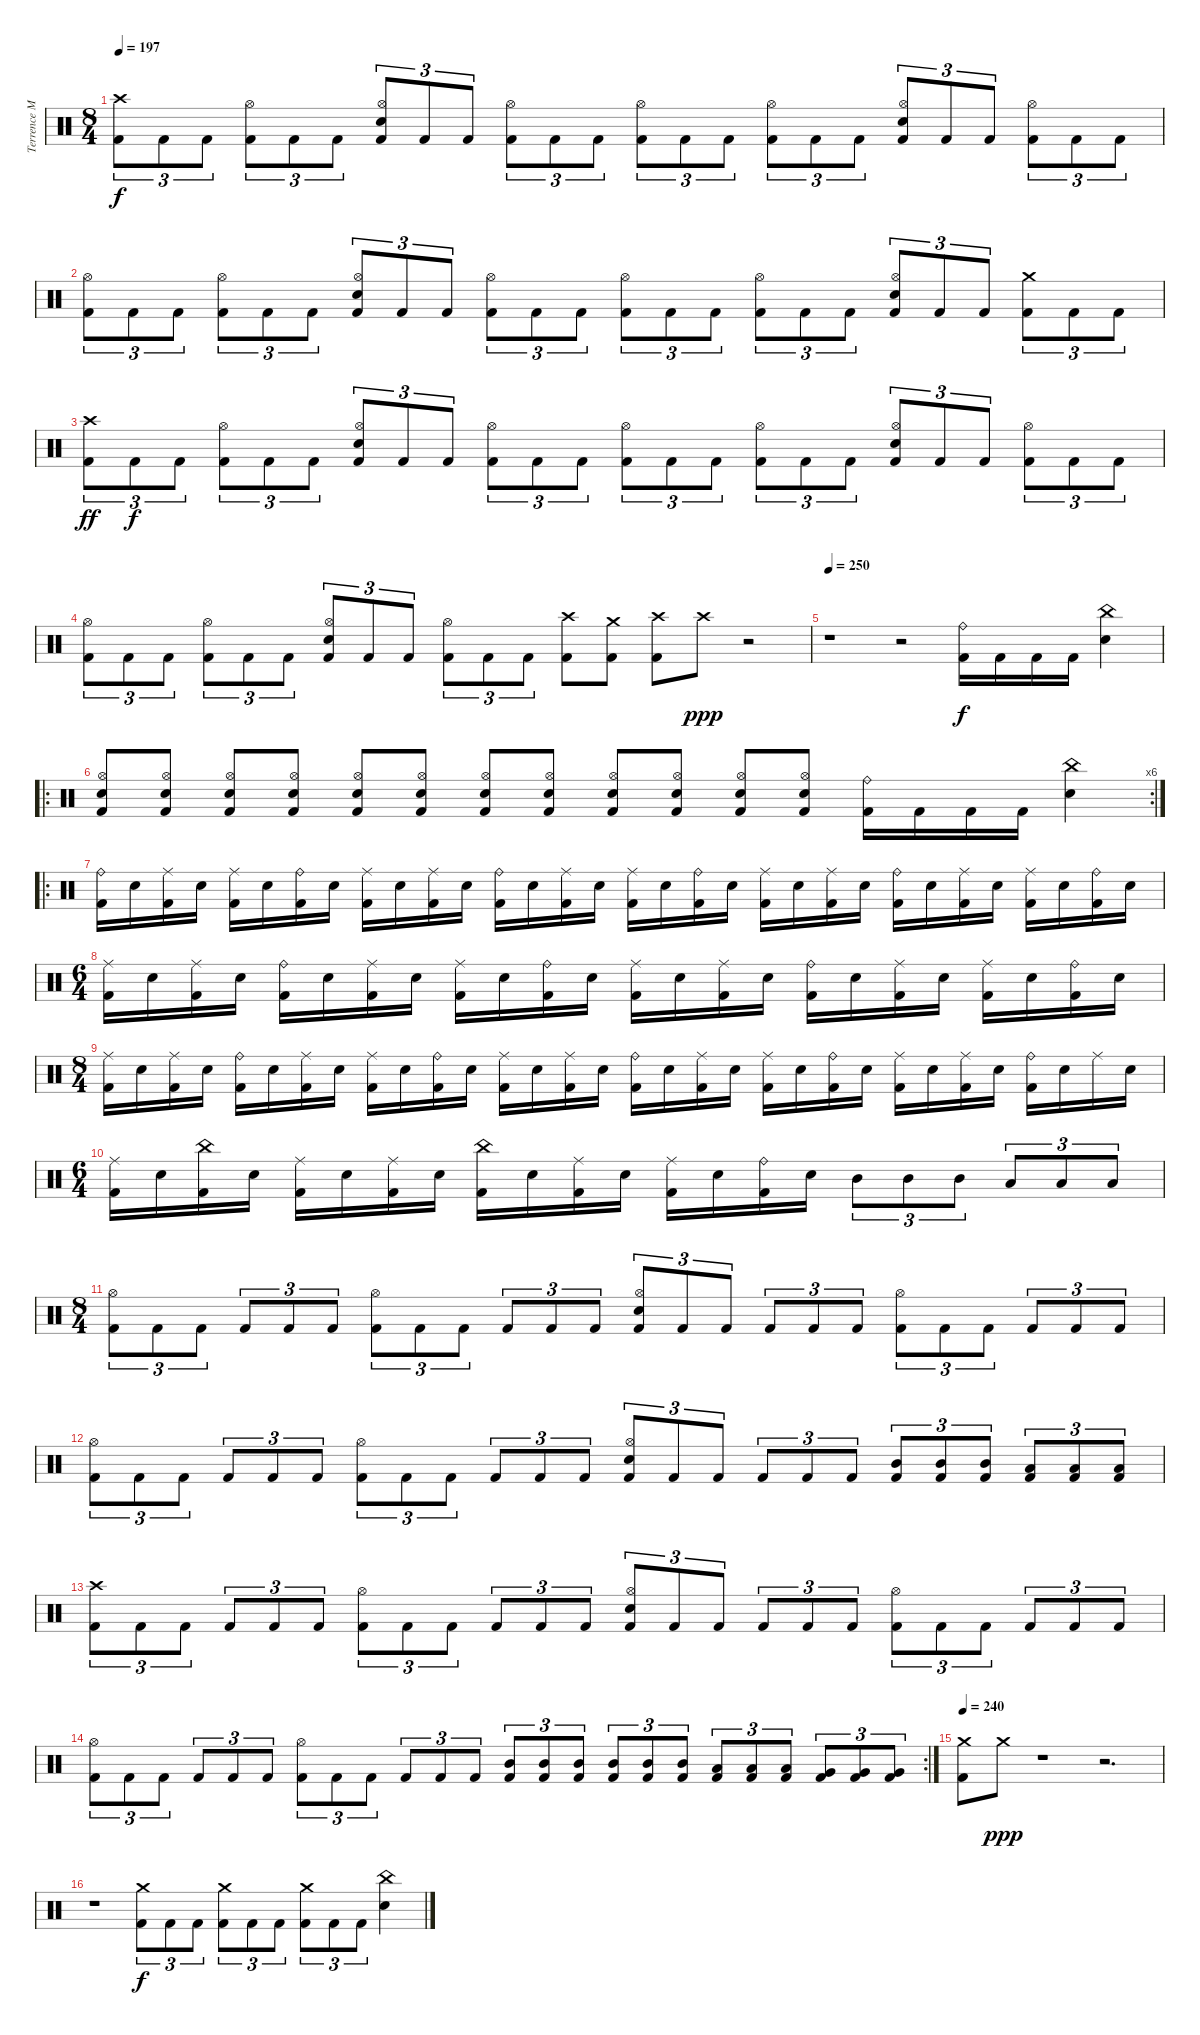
\track ("Terrence Manauis" "Terrence M") {instrument percussion}
\staff {score}
\articulation defaults
\ts (8 4)
\tempo 197
\clef neutral
\ks c
("Crash high (hit)" "Kick (hit) 2").8{tu (3 2) dy f} "Kick (hit) 2".8{tu (3 2)} "Kick (hit) 2".8{tu (3 2)} ("Hi-Hat (open)" "Kick (hit) 2").8{tu (3 2)} "Kick (hit) 2".8{tu (3 2)} "Kick (hit) 2".8{tu (3 2)} ("Hi-Hat (open)" "Electric Snare (hit)" "Kick (hit) 2").8{tu (3 2)} "Kick (hit) 2".8{tu (3 2)} "Kick (hit) 2".8{tu (3 2)} ("Hi-Hat (open)" "Kick (hit) 2").8{tu (3 2)} "Kick (hit) 2".8{tu (3 2)} "Kick (hit) 2".8{tu (3 2)} ("Hi-Hat (open)" "Kick (hit) 2").8{tu (3 2)} "Kick (hit) 2".8{tu (3 2)} "Kick (hit) 2".8{tu (3 2)} ("Hi-Hat (open)" "Kick (hit) 2").8{tu (3 2)} "Kick (hit) 2".8{tu (3 2)} "Kick (hit) 2".8{tu (3 2)} ("Hi-Hat (open)" "Electric Snare (hit)" "Kick (hit) 2").8{tu (3 2)} "Kick (hit) 2".8{tu (3 2)} "Kick (hit) 2".8{tu (3 2)} ("Hi-Hat (open)" "Kick (hit) 2").8{tu (3 2)} "Kick (hit) 2".8{tu (3 2)} "Kick (hit) 2".8{tu (3 2)} |
("Hi-Hat (open)" "Kick (hit) 2").8{tu (3 2)} "Kick (hit) 2".8{tu (3 2)} "Kick (hit) 2".8{tu (3 2)} ("Hi-Hat (open)" "Kick (hit) 2").8{tu (3 2)} "Kick (hit) 2".8{tu (3 2)} "Kick (hit) 2".8{tu (3 2)} ("Hi-Hat (open)" "Electric Snare (hit)" "Kick (hit) 2").8{tu (3 2)} "Kick (hit) 2".8{tu (3 2)} "Kick (hit) 2".8{tu (3 2)} ("Hi-Hat (open)" "Kick (hit) 2").8{tu (3 2)} "Kick (hit) 2".8{tu (3 2)} "Kick (hit) 2".8{tu (3 2)} ("Hi-Hat (open)" "Kick (hit) 2").8{tu (3 2)} "Kick (hit) 2".8{tu (3 2)} "Kick (hit) 2".8{tu (3 2)} ("Hi-Hat (open)" "Kick (hit) 2").8{tu (3 2)} "Kick (hit) 2".8{tu (3 2)} "Kick (hit) 2".8{tu (3 2)} ("Hi-Hat (open)" "Electric Snare (hit)" "Kick (hit) 2").8{tu (3 2)} "Kick (hit) 2".8{tu (3 2)} "Kick (hit) 2".8{tu (3 2)} ("Crash medium (hit)" "Kick (hit) 2").8{tu (3 2)} "Kick (hit) 2".8{tu (3 2)} "Kick (hit) 2".8{tu (3 2)} |
("Crash high (hit)" "Kick (hit) 2").8{tu (3 2) dy ff} "Kick (hit) 2".8{tu (3 2) dy f} "Kick (hit) 2".8{tu (3 2)} ("Hi-Hat (open)" "Kick (hit) 2").8{tu (3 2)} "Kick (hit) 2".8{tu (3 2)} "Kick (hit) 2".8{tu (3 2)} ("Hi-Hat (open)" "Electric Snare (hit)" "Kick (hit) 2").8{tu (3 2)} "Kick (hit) 2".8{tu (3 2)} "Kick (hit) 2".8{tu (3 2)} ("Hi-Hat (open)" "Kick (hit) 2").8{tu (3 2)} "Kick (hit) 2".8{tu (3 2)} "Kick (hit) 2".8{tu (3 2)} ("Hi-Hat (open)" "Kick (hit) 2").8{tu (3 2)} "Kick (hit) 2".8{tu (3 2)} "Kick (hit) 2".8{tu (3 2)} ("Hi-Hat (open)" "Kick (hit) 2").8{tu (3 2)} "Kick (hit) 2".8{tu (3 2)} "Kick (hit) 2".8{tu (3 2)} ("Hi-Hat (open)" "Electric Snare (hit)" "Kick (hit) 2").8{tu (3 2)} "Kick (hit) 2".8{tu (3 2)} "Kick (hit) 2".8{tu (3 2)} ("Hi-Hat (open)" "Kick (hit) 2").8{tu (3 2)} "Kick (hit) 2".8{tu (3 2)} "Kick (hit) 2".8{tu (3 2)} |
("Hi-Hat (open)" "Kick (hit) 2").8{tu (3 2)} "Kick (hit) 2".8{tu (3 2)} "Kick (hit) 2".8{tu (3 2)} ("Hi-Hat (open)" "Kick (hit) 2").8{tu (3 2)} "Kick (hit) 2".8{tu (3 2)} "Kick (hit) 2".8{tu (3 2)} ("Hi-Hat (open)" "Electric Snare (hit)" "Kick (hit) 2").8{tu (3 2)} "Kick (hit) 2".8{tu (3 2)} "Kick (hit) 2".8{tu (3 2)} ("Hi-Hat (open)" "Kick (hit) 2").8{tu (3 2)} "Kick (hit) 2".8{tu (3 2)} "Kick (hit) 2".8{tu (3 2)} ("Crash high (hit)" "Kick (hit) 2").8 ("Crash medium (hit)" "Kick (hit) 2").8 ("Crash high (hit)" "Kick (hit) 2").8 "Crash high (hit)".8{dy ppp} r.2 |
\tempo 250
r.1 r.2 ("Ride (bell)" "Kick (hit) 2").16{dy f} "Kick (hit) 2".16 "Kick (hit) 2".16 "Kick (hit) 2".16 ("China (hit)" "Electric Snare (hit)").4 |
\ro
\rc 6
("Hi-Hat (open)" "Electric Snare (hit)" "Kick (hit) 2").8 ("Hi-Hat (open)" "Electric Snare (hit)" "Kick (hit) 2").8 ("Hi-Hat (open)" "Electric Snare (hit)" "Kick (hit) 2").8 ("Hi-Hat (open)" "Electric Snare (hit)" "Kick (hit) 2").8 ("Hi-Hat (open)" "Electric Snare (hit)" "Kick (hit) 2").8 ("Hi-Hat (open)" "Electric Snare (hit)" "Kick (hit) 2").8 ("Hi-Hat (open)" "Electric Snare (hit)" "Kick (hit) 2").8 ("Hi-Hat (open)" "Electric Snare (hit)" "Kick (hit) 2").8 ("Hi-Hat (open)" "Electric Snare (hit)" "Kick (hit) 2").8 ("Hi-Hat (open)" "Electric Snare (hit)" "Kick (hit) 2").8 ("Hi-Hat (open)" "Electric Snare (hit)" "Kick (hit) 2").8 ("Hi-Hat (open)" "Electric Snare (hit)" "Kick (hit) 2").8 ("Ride (bell)" "Kick (hit) 2").16 "Kick (hit) 2".16 "Kick (hit) 2".16 "Kick (hit) 2".16 ("China (hit)" "Electric Snare (hit)").4 |
\ro
("Ride (bell)" "Kick (hit) 2").16 "Electric Snare (hit)".16 ("Ride (middle)" "Kick (hit) 2").16 "Electric Snare (hit)".16 ("Ride (middle)" "Kick (hit) 2").16 "Electric Snare (hit)".16 ("Ride (bell)" "Kick (hit) 2").16 "Electric Snare (hit)".16 ("Ride (middle)" "Kick (hit) 2").16 "Electric Snare (hit)".16 ("Ride (middle)" "Kick (hit) 2").16 "Electric Snare (hit)".16 ("Ride (bell)" "Kick (hit) 2").16 "Electric Snare (hit)".16 ("Ride (middle)" "Kick (hit) 2").16 "Electric Snare (hit)".16 ("Ride (middle)" "Kick (hit) 2").16 "Electric Snare (hit)".16 ("Ride (bell)" "Kick (hit) 2").16 "Electric Snare (hit)".16 ("Ride (middle)" "Kick (hit) 2").16 "Electric Snare (hit)".16 ("Ride (middle)" "Kick (hit) 2").16 "Electric Snare (hit)".16 ("Ride (bell)" "Kick (hit) 2").16 "Electric Snare (hit)".16 ("Ride (middle)" "Kick (hit) 2").16 "Electric Snare (hit)".16 ("Ride (middle)" "Kick (hit) 2").16 "Electric Snare (hit)".16 ("Ride (bell)" "Kick (hit) 2").16 "Electric Snare (hit)".16 |
\ts (6 4)
("Ride (middle)" "Kick (hit) 2").16 "Electric Snare (hit)".16 ("Ride (middle)" "Kick (hit) 2").16 "Electric Snare (hit)".16 ("Ride (bell)" "Kick (hit) 2").16 "Electric Snare (hit)".16 ("Ride (middle)" "Kick (hit) 2").16 "Electric Snare (hit)".16 ("Ride (middle)" "Kick (hit) 2").16 "Electric Snare (hit)".16 ("Ride (bell)" "Kick (hit) 2").16 "Electric Snare (hit)".16 ("Ride (middle)" "Kick (hit) 2").16 "Electric Snare (hit)".16 ("Ride (middle)" "Kick (hit) 2").16 "Electric Snare (hit)".16 ("Ride (bell)" "Kick (hit) 2").16 "Electric Snare (hit)".16 ("Ride (middle)" "Kick (hit) 2").16 "Electric Snare (hit)".16 ("Ride (middle)" "Kick (hit) 2").16 "Electric Snare (hit)".16 ("Ride (bell)" "Kick (hit) 2").16 "Electric Snare (hit)".16 |
\ts (8 4)
("Ride (middle)" "Kick (hit) 2").16 "Electric Snare (hit)".16 ("Ride (middle)" "Kick (hit) 2").16 "Electric Snare (hit)".16 ("Ride (bell)" "Kick (hit) 2").16 "Electric Snare (hit)".16 ("Ride (middle)" "Kick (hit) 2").16 "Electric Snare (hit)".16 ("Ride (middle)" "Kick (hit) 2").16 "Electric Snare (hit)".16 ("Ride (bell)" "Kick (hit) 2").16 "Electric Snare (hit)".16 ("Ride (middle)" "Kick (hit) 2").16 "Electric Snare (hit)".16 ("Ride (middle)" "Kick (hit) 2").16 "Electric Snare (hit)".16 ("Ride (bell)" "Kick (hit) 2").16 "Electric Snare (hit)".16 ("Ride (middle)" "Kick (hit) 2").16 "Electric Snare (hit)".16 ("Ride (middle)" "Kick (hit) 2").16 "Electric Snare (hit)".16 ("Ride (bell)" "Kick (hit) 2").16 "Electric Snare (hit)".16 ("Ride (middle)" "Kick (hit) 2").16 "Electric Snare (hit)".16 ("Ride (middle)" "Kick (hit) 2").16 "Electric Snare (hit)".16 ("Ride (bell)" "Kick (hit) 2").16 "Electric Snare (hit)".16 "Ride (middle)".16 "Electric Snare (hit)".16 |
\ts (6 4)
("Ride (middle)" "Kick (hit) 2").16 "Electric Snare (hit)".16 ("China (hit)" "Kick (hit) 2").16 "Electric Snare (hit)".16 ("Ride (middle)" "Kick (hit) 2").16 "Electric Snare (hit)".16 ("Ride (middle)" "Kick (hit) 2").16 "Electric Snare (hit)".16 ("China (hit)" "Kick (hit) 2").16 "Electric Snare (hit)".16 ("Ride (middle)" "Kick (hit) 2").16 "Electric Snare (hit)".16 ("Ride (middle)" "Kick (hit) 2").16 "Electric Snare (hit)".16 ("Ride (bell)" "Kick (hit) 2").16 "Electric Snare (hit)".16 "Mid Tom (hit)".8{tu (3 2)} "Mid Tom (hit)".8{tu (3 2)} "Mid Tom (hit)".8{tu (3 2)} "Low Tom (hit)".8{tu (3 2)} "Low Tom (hit)".8{tu (3 2)} "Low Tom (hit)".8{tu (3 2)} |
\ts (8 4)
("Hi-Hat (open)" "Kick (hit) 2").8{tu (3 2)} "Kick (hit) 2".8{tu (3 2)} "Kick (hit) 2".8{tu (3 2)} "Kick (hit) 2".8{tu (3 2)} "Kick (hit) 2".8{tu (3 2)} "Kick (hit) 2".8{tu (3 2)} ("Hi-Hat (open)" "Kick (hit) 2").8{tu (3 2)} "Kick (hit) 2".8{tu (3 2)} "Kick (hit) 2".8{tu (3 2)} "Kick (hit) 2".8{tu (3 2)} "Kick (hit) 2".8{tu (3 2)} "Kick (hit) 2".8{tu (3 2)} ("Hi-Hat (open)" "Electric Snare (hit)" "Kick (hit) 2").8{tu (3 2)} "Kick (hit) 2".8{tu (3 2)} "Kick (hit) 2".8{tu (3 2)} "Kick (hit) 2".8{tu (3 2)} "Kick (hit) 2".8{tu (3 2)} "Kick (hit) 2".8{tu (3 2)} ("Hi-Hat (open)" "Kick (hit) 2").8{tu (3 2)} "Kick (hit) 2".8{tu (3 2)} "Kick (hit) 2".8{tu (3 2)} "Kick (hit) 2".8{tu (3 2)} "Kick (hit) 2".8{tu (3 2)} "Kick (hit) 2".8{tu (3 2)} |
("Hi-Hat (open)" "Kick (hit) 2").8{tu (3 2)} "Kick (hit) 2".8{tu (3 2)} "Kick (hit) 2".8{tu (3 2)} "Kick (hit) 2".8{tu (3 2)} "Kick (hit) 2".8{tu (3 2)} "Kick (hit) 2".8{tu (3 2)} ("Hi-Hat (open)" "Kick (hit) 2").8{tu (3 2)} "Kick (hit) 2".8{tu (3 2)} "Kick (hit) 2".8{tu (3 2)} "Kick (hit) 2".8{tu (3 2)} "Kick (hit) 2".8{tu (3 2)} "Kick (hit) 2".8{tu (3 2)} ("Hi-Hat (open)" "Electric Snare (hit)" "Kick (hit) 2").8{tu (3 2)} "Kick (hit) 2".8{tu (3 2)} "Kick (hit) 2".8{tu (3 2)} "Kick (hit) 2".8{tu (3 2)} "Kick (hit) 2".8{tu (3 2)} "Kick (hit) 2".8{tu (3 2)} ("Mid Tom (hit)" "Kick (hit) 2").8{tu (3 2)} ("Mid Tom (hit)" "Kick (hit) 2").8{tu (3 2)} ("Mid Tom (hit)" "Kick (hit) 2").8{tu (3 2)} ("Low Tom (hit)" "Kick (hit) 2").8{tu (3 2)} ("Low Tom (hit)" "Kick (hit) 2").8{tu (3 2)} ("Low Tom (hit)" "Kick (hit) 2").8{tu (3 2)} |
("Crash high (hit)" "Kick (hit) 2").8{tu (3 2)} "Kick (hit) 2".8{tu (3 2)} "Kick (hit) 2".8{tu (3 2)} "Kick (hit) 2".8{tu (3 2)} "Kick (hit) 2".8{tu (3 2)} "Kick (hit) 2".8{tu (3 2)} ("Hi-Hat (open)" "Kick (hit) 2").8{tu (3 2)} "Kick (hit) 2".8{tu (3 2)} "Kick (hit) 2".8{tu (3 2)} "Kick (hit) 2".8{tu (3 2)} "Kick (hit) 2".8{tu (3 2)} "Kick (hit) 2".8{tu (3 2)} ("Hi-Hat (open)" "Electric Snare (hit)" "Kick (hit) 2").8{tu (3 2)} "Kick (hit) 2".8{tu (3 2)} "Kick (hit) 2".8{tu (3 2)} "Kick (hit) 2".8{tu (3 2)} "Kick (hit) 2".8{tu (3 2)} "Kick (hit) 2".8{tu (3 2)} ("Hi-Hat (open)" "Kick (hit) 2").8{tu (3 2)} "Kick (hit) 2".8{tu (3 2)} "Kick (hit) 2".8{tu (3 2)} "Kick (hit) 2".8{tu (3 2)} "Kick (hit) 2".8{tu (3 2)} "Kick (hit) 2".8{tu (3 2)} |
\rc 2
("Hi-Hat (open)" "Kick (hit) 2").8{tu (3 2)} "Kick (hit) 2".8{tu (3 2)} "Kick (hit) 2".8{tu (3 2)} "Kick (hit) 2".8{tu (3 2)} "Kick (hit) 2".8{tu (3 2)} "Kick (hit) 2".8{tu (3 2)} ("Hi-Hat (open)" "Kick (hit) 2").8{tu (3 2)} "Kick (hit) 2".8{tu (3 2)} "Kick (hit) 2".8{tu (3 2)} "Kick (hit) 2".8{tu (3 2)} "Kick (hit) 2".8{tu (3 2)} "Kick (hit) 2".8{tu (3 2)} ("Mid Tom (hit)" "Kick (hit) 2").8{tu (3 2)} ("Mid Tom (hit)" "Kick (hit) 2").8{tu (3 2)} ("Mid Tom (hit)" "Kick (hit) 2").8{tu (3 2)} ("Mid Tom (hit)" "Kick (hit) 2").8{tu (3 2)} ("Mid Tom (hit)" "Kick (hit) 2").8{tu (3 2)} ("Mid Tom (hit)" "Kick (hit) 2").8{tu (3 2)} ("Low Tom (hit)" "Kick (hit) 2").8{tu (3 2)} ("Low Tom (hit)" "Kick (hit) 2").8{tu (3 2)} ("Low Tom (hit)" "Kick (hit) 2").8{tu (3 2)} ("Very Low Tom (hit)" "Kick (hit) 2").8{tu (3 2)} ("Very Low Tom (hit)" "Kick (hit) 2").8{tu (3 2)} ("Very Low Tom (hit)" "Kick (hit) 2").8{tu (3 2)} |
\tempo 240
("Crash medium (hit)" "Kick (hit) 2").8 "Crash medium (hit)".8{dy ppp} r.1 r.2{d} |
r.1 ("Crash medium (hit)" "Kick (hit) 2").8{tu (3 2) dy f} "Kick (hit) 2".8{tu (3 2)} "Kick (hit) 2".8{tu (3 2)} ("Crash medium (hit)" "Kick (hit) 2").8{tu (3 2)} "Kick (hit) 2".8{tu (3 2)} "Kick (hit) 2".8{tu (3 2)} ("Crash medium (hit)" "Kick (hit) 2").8{tu (3 2)} "Kick (hit) 2".8{tu (3 2)} "Kick (hit) 2".8{tu (3 2)} ("China (hit)" "Electric Snare (hit)").4
